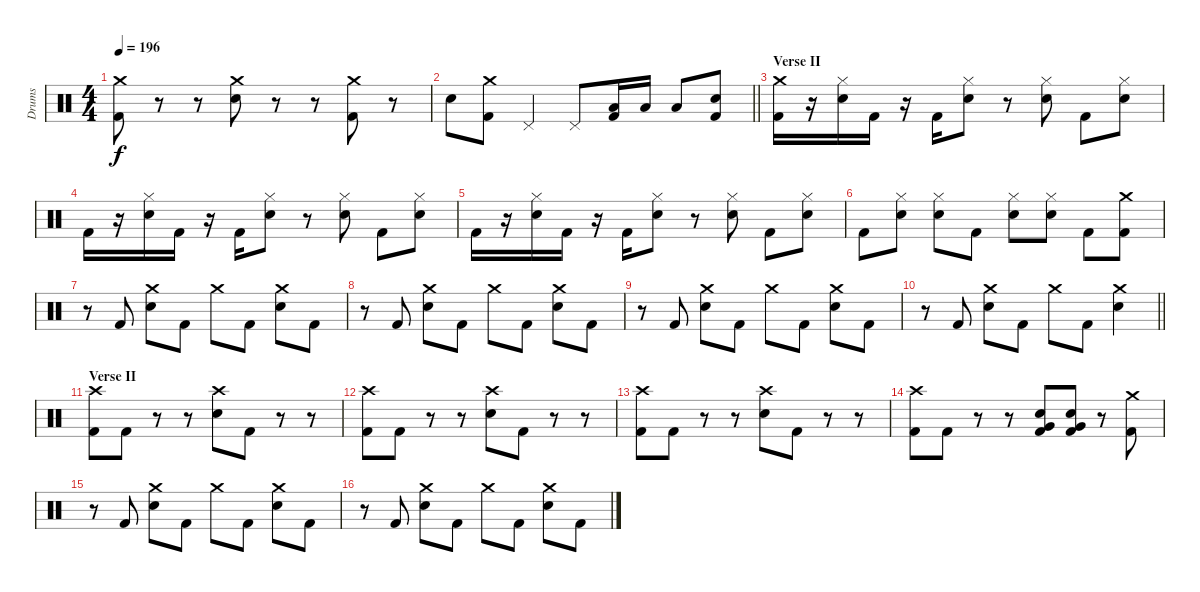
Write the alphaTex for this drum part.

\track ("Drums" "Drums") {instrument percussion}
\staff {score}
\articulation defaults
\ts (4 4)
\tempo 196
\clef neutral
\ks c
("Crash medium (hit)" "Kick (hit) 2").8{dy f} r.8 r.8 ("Crash medium (hit)" "Electric Snare (hit)").8 r.8 r.8 ("Crash medium (hit)" "Kick (hit) 2").8 r.8 |
\barLineRight lightlight "Electric Snare (hit)".8
("Crash medium (hit)" "Kick (hit) 2").8 "Pedal Hi-Hat (hit)".4 "Pedal Hi-Hat (hit)".8 ("Low Tom (hit)" "Kick (hit) 2").16 "Low Tom (hit)".16 "Low Tom (hit)".8 ("Electric Snare (hit)" "Kick (hit) 2").8 |
\section ("" "Verse II")
("Crash medium (hit)" "Kick (hit) 2").16 r.16 ("Hi-Hat (closed)" "Electric Snare (hit)").16 "Kick (hit) 2".16 r.16 "Kick (hit) 2".16 ("Hi-Hat (closed)" "Electric Snare (hit)").8 r.8 ("Hi-Hat (closed)" "Electric Snare (hit)").8 "Kick (hit) 2".8 ("Hi-Hat (closed)" "Electric Snare (hit)").8 |
"Kick (hit) 2".16 r.16 ("Hi-Hat (closed)" "Electric Snare (hit)").16 "Kick (hit) 2".16 r.16 "Kick (hit) 2".16 ("Hi-Hat (closed)" "Electric Snare (hit)").8 r.8 ("Hi-Hat (closed)" "Electric Snare (hit)").8 "Kick (hit) 2".8 ("Hi-Hat (closed)" "Electric Snare (hit)").8 |
"Kick (hit) 2".16 r.16 ("Hi-Hat (closed)" "Electric Snare (hit)").16 "Kick (hit) 2".16 r.16 "Kick (hit) 2".16 ("Hi-Hat (closed)" "Electric Snare (hit)").8 r.8 ("Hi-Hat (closed)" "Electric Snare (hit)").8 "Kick (hit) 2".8 ("Hi-Hat (closed)" "Electric Snare (hit)").8 |
"Kick (hit) 2".8 ("Hi-Hat (closed)" "Electric Snare (hit)").8 ("Hi-Hat (closed)" "Electric Snare (hit)").8 "Kick (hit) 2".8 ("Hi-Hat (closed)" "Electric Snare (hit)").8 ("Hi-Hat (closed)" "Electric Snare (hit)").8 "Kick (hit) 2".8 ("Crash medium (hit)" "Kick (hit) 2").8 |
r.8 "Kick (hit) 2".8 ("Crash medium (hit)" "Electric Snare (hit)").8 "Kick (hit) 2".8 "Crash medium (hit)".8 "Kick (hit) 2".8 ("Crash medium (hit)" "Electric Snare (hit)").8 "Kick (hit) 2".8 |
r.8 "Kick (hit) 2".8 ("Crash medium (hit)" "Electric Snare (hit)").8 "Kick (hit) 2".8 "Crash medium (hit)".8 "Kick (hit) 2".8 ("Crash medium (hit)" "Electric Snare (hit)").8 "Kick (hit) 2".8 |
r.8 "Kick (hit) 2".8 ("Crash medium (hit)" "Electric Snare (hit)").8 "Kick (hit) 2".8 "Crash medium (hit)".8 "Kick (hit) 2".8 ("Crash medium (hit)" "Electric Snare (hit)").8 "Kick (hit) 2".8 |
\barLineRight lightlight
r.8 "Kick (hit) 2".8 ("Crash medium (hit)" "Electric Snare (hit)").8 "Kick (hit) 2".8 "Crash medium (hit)".8 "Kick (hit) 2".8 ("Crash medium (hit)" "Electric Snare (hit)").4 |
\section ("" "Verse II")
("Crash high (hit)" "Kick (hit) 2").8 "Kick (hit) 2".8 r.8 r.8 ("Crash high (hit)" "Electric Snare (hit)").8 "Kick (hit) 2".8 r.8 r.8 |
("Crash high (hit)" "Kick (hit) 2").8 "Kick (hit) 2".8 r.8 r.8 ("Crash high (hit)" "Electric Snare (hit)").8 "Kick (hit) 2".8 r.8 r.8 |
("Crash high (hit)" "Kick (hit) 2").8 "Kick (hit) 2".8 r.8 r.8 ("Crash high (hit)" "Electric Snare (hit)").8 "Kick (hit) 2".8 r.8 r.8 |
("Crash high (hit)" "Kick (hit) 2").8 "Kick (hit) 2".8 r.8 r.8 ("Very Low Tom (hit)" "Electric Snare (hit)" "Kick (hit) 2").8 ("Very Low Tom (hit)" "Electric Snare (hit)" "Kick (hit) 2").8 r.8 ("Crash medium (hit)" "Kick (hit) 2").8 |
r.8 "Kick (hit) 2".8 ("Crash medium (hit)" "Electric Snare (hit)").8 "Kick (hit) 2".8 "Crash medium (hit)".8 "Kick (hit) 2".8 ("Crash medium (hit)" "Electric Snare (hit)").8 "Kick (hit) 2".8 |
r.8 "Kick (hit) 2".8 ("Crash medium (hit)" "Electric Snare (hit)").8 "Kick (hit) 2".8 "Crash medium (hit)".8 "Kick (hit) 2".8 ("Crash medium (hit)" "Electric Snare (hit)").8 "Kick (hit) 2".8
